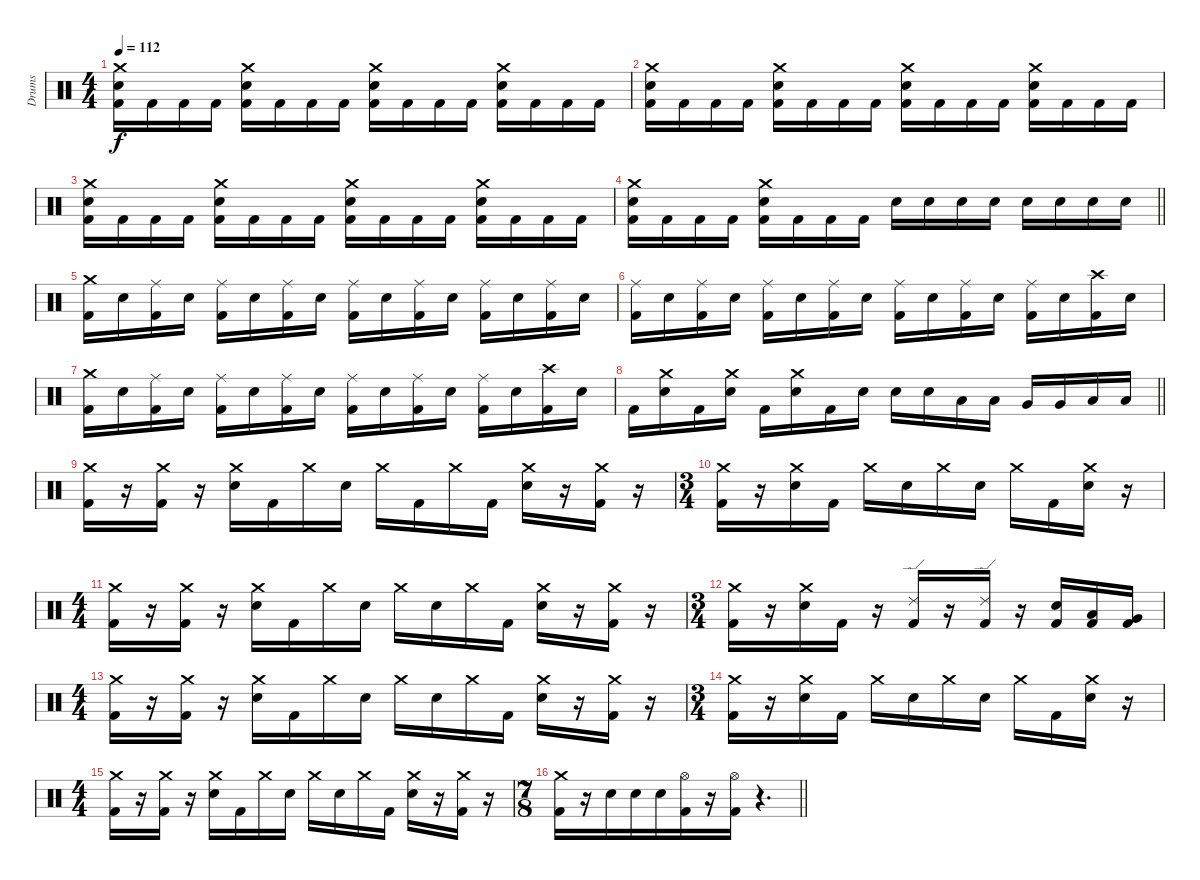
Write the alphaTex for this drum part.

\track ("Drums" "Drums") {instrument percussion}
\staff {score}
\articulation defaults
\ts (4 4)
\section ("" "")
\tempo 112
\clef neutral
\ks c
("Crash medium (hit)" "Electric Snare (hit)" "Kick (hit) 2").16{dy f} "Kick (hit) 2".16 "Kick (hit) 2".16 "Kick (hit) 2".16 ("Crash medium (hit)" "Electric Snare (hit)" "Kick (hit) 2").16 "Kick (hit) 2".16 "Kick (hit) 2".16 "Kick (hit) 2".16 ("Crash medium (hit)" "Electric Snare (hit)" "Kick (hit) 2").16 "Kick (hit) 2".16 "Kick (hit) 2".16 "Kick (hit) 2".16 ("Crash medium (hit)" "Electric Snare (hit)" "Kick (hit) 2").16 "Kick (hit) 2".16 "Kick (hit) 2".16 "Kick (hit) 2".16 |
("Crash medium (hit)" "Electric Snare (hit)" "Kick (hit) 2").16 "Kick (hit) 2".16 "Kick (hit) 2".16 "Kick (hit) 2".16 ("Crash medium (hit)" "Electric Snare (hit)" "Kick (hit) 2").16 "Kick (hit) 2".16 "Kick (hit) 2".16 "Kick (hit) 2".16 ("Crash medium (hit)" "Electric Snare (hit)" "Kick (hit) 2").16 "Kick (hit) 2".16 "Kick (hit) 2".16 "Kick (hit) 2".16 ("Crash medium (hit)" "Electric Snare (hit)" "Kick (hit) 2").16 "Kick (hit) 2".16 "Kick (hit) 2".16 "Kick (hit) 2".16 |
("Crash medium (hit)" "Electric Snare (hit)" "Kick (hit) 2").16 "Kick (hit) 2".16 "Kick (hit) 2".16 "Kick (hit) 2".16 ("Crash medium (hit)" "Electric Snare (hit)" "Kick (hit) 2").16 "Kick (hit) 2".16 "Kick (hit) 2".16 "Kick (hit) 2".16 ("Crash medium (hit)" "Electric Snare (hit)" "Kick (hit) 2").16 "Kick (hit) 2".16 "Kick (hit) 2".16 "Kick (hit) 2".16 ("Crash medium (hit)" "Electric Snare (hit)" "Kick (hit) 2").16 "Kick (hit) 2".16 "Kick (hit) 2".16 "Kick (hit) 2".16 |
\barLineRight lightlight
("Crash medium (hit)" "Electric Snare (hit)" "Kick (hit) 2").16 "Kick (hit) 2".16 "Kick (hit) 2".16 "Kick (hit) 2".16 ("Crash medium (hit)" "Electric Snare (hit)" "Kick (hit) 2").16 "Kick (hit) 2".16 "Kick (hit) 2".16 "Kick (hit) 2".16 "Electric Snare (hit)".16 "Electric Snare (hit)".16 "Electric Snare (hit)".16 "Electric Snare (hit)".16 "Electric Snare (hit)".16 "Electric Snare (hit)".16 "Electric Snare (hit)".16 "Electric Snare (hit)".16 |
\section ("" "")
("Crash medium (hit)" "Kick (hit) 2").16 "Electric Snare (hit)".16 ("Ride (middle)" "Kick (hit) 2").16 "Electric Snare (hit)".16 ("Ride (middle)" "Kick (hit) 2").16 "Electric Snare (hit)".16 ("Ride (middle)" "Kick (hit) 2").16 "Electric Snare (hit)".16 ("Ride (middle)" "Kick (hit) 2").16 "Electric Snare (hit)".16 ("Ride (middle)" "Kick (hit) 2").16 "Electric Snare (hit)".16 ("Ride (middle)" "Kick (hit) 2").16 "Electric Snare (hit)".16 ("Ride (middle)" "Kick (hit) 2").16 "Electric Snare (hit)".16 |
("Ride (middle)" "Kick (hit) 2").16 "Electric Snare (hit)".16 ("Ride (middle)" "Kick (hit) 2").16 "Electric Snare (hit)".16 ("Ride (middle)" "Kick (hit) 2").16 "Electric Snare (hit)".16 ("Ride (middle)" "Kick (hit) 2").16 "Electric Snare (hit)".16 ("Ride (middle)" "Kick (hit) 2").16 "Electric Snare (hit)".16 ("Ride (middle)" "Kick (hit) 2").16 "Electric Snare (hit)".16 ("Ride (middle)" "Kick (hit) 2").16 "Electric Snare (hit)".16 ("Crash high (hit)" "Kick (hit) 2").16 "Electric Snare (hit)".16 |
("Crash medium (hit)" "Kick (hit) 2").16 "Electric Snare (hit)".16 ("Ride (middle)" "Kick (hit) 2").16 "Electric Snare (hit)".16 ("Ride (middle)" "Kick (hit) 2").16 "Electric Snare (hit)".16 ("Ride (middle)" "Kick (hit) 2").16 "Electric Snare (hit)".16 ("Ride (middle)" "Kick (hit) 2").16 "Electric Snare (hit)".16 ("Ride (middle)" "Kick (hit) 2").16 "Electric Snare (hit)".16 ("Ride (middle)" "Kick (hit) 2").16 "Electric Snare (hit)".16 ("Crash high (hit)" "Kick (hit) 2").16 "Electric Snare (hit)".16 |
\barLineRight lightlight "Kick (hit) 2".16
("Crash medium (hit)" "Electric Snare (hit)").16 "Kick (hit) 2".16 ("Crash medium (hit)" "Electric Snare (hit)").16 "Kick (hit) 2".16 ("Crash medium (hit)" "Electric Snare (hit)").16 "Kick (hit) 2".16 "Electric Snare (hit)".16 "Electric Snare (hit)".16 "Electric Snare (hit)".16 "Low Tom (hit)".16 "Low Tom (hit)".16 "Very Low Tom (hit)".16 "Very Low Tom (hit)".16 "Low Floor Tom (hit)".16 "Low Floor Tom (hit)".16 |
\section ("" "")
("Crash medium (hit)" "Kick (hit) 2").16 r.16 ("Crash medium (hit)" "Kick (hit) 2").16 r.16 ("Crash medium (hit)" "Electric Snare (hit)").16 "Kick (hit) 2".16 "Crash medium (hit)".16 "Electric Snare (hit)".16 "Crash medium (hit)".16 "Kick (hit) 2".16 "Crash medium (hit)".16 "Kick (hit) 2".16 ("Crash medium (hit)" "Electric Snare (hit)").16 r.16 ("Crash medium (hit)" "Kick (hit) 2").16 r.16 |
\ts (3 4)
("Crash medium (hit)" "Kick (hit) 2").16 r.16 ("Crash medium (hit)" "Electric Snare (hit)").16 "Kick (hit) 2".16 "Crash medium (hit)".16 "Electric Snare (hit)".16 "Crash medium (hit)".16 "Electric Snare (hit)".16 "Crash medium (hit)".16 "Kick (hit) 2".16 ("Crash medium (hit)" "Electric Snare (hit)").16 r.16 |
\ts (4 4)
("Crash medium (hit)" "Kick (hit) 2").16 r.16 ("Crash medium (hit)" "Kick (hit) 2").16 r.16 ("Crash medium (hit)" "Electric Snare (hit)").16 "Kick (hit) 2".16 "Crash medium (hit)".16 "Electric Snare (hit)".16 "Crash medium (hit)".16 "Electric Snare (hit)".16 "Crash medium (hit)".16 "Kick (hit) 2".16 ("Crash medium (hit)" "Electric Snare (hit)").16 r.16 ("Crash medium (hit)" "Kick (hit) 2").16 r.16 |
\ts (3 4)
("Crash medium (hit)" "Kick (hit) 2").16 r.16 ("Crash medium (hit)" "Electric Snare (hit)").16 "Kick (hit) 2".16 r.16 ("Ride (edge) 2" "Kick (hit) 2").16 r.16 ("Ride (edge) 2" "Kick (hit) 2").16 r.16 ("Electric Snare (hit)" "Kick (hit) 2").16 ("Low Tom (hit)" "Kick (hit) 2").16 ("Very Low Tom (hit)" "Kick (hit) 2").16 |
\ts (4 4)
("Crash medium (hit)" "Kick (hit) 2").16 r.16 ("Crash medium (hit)" "Kick (hit) 2").16 r.16 ("Crash medium (hit)" "Electric Snare (hit)").16 "Kick (hit) 2".16 "Crash medium (hit)".16 "Electric Snare (hit)".16 "Crash medium (hit)".16 "Electric Snare (hit)".16 "Crash medium (hit)".16 "Kick (hit) 2".16 ("Crash medium (hit)" "Electric Snare (hit)").16 r.16 ("Crash medium (hit)" "Kick (hit) 2").16 r.16 |
\ts (3 4)
("Crash medium (hit)" "Kick (hit) 2").16 r.16 ("Crash medium (hit)" "Electric Snare (hit)").16 "Kick (hit) 2".16 "Crash medium (hit)".16 "Electric Snare (hit)".16 "Crash medium (hit)".16 "Electric Snare (hit)".16 "Crash medium (hit)".16 "Kick (hit) 2".16 ("Crash medium (hit)" "Electric Snare (hit)").16 r.16 |
\ts (4 4)
("Crash medium (hit)" "Kick (hit) 2").16 r.16 ("Crash medium (hit)" "Kick (hit) 2").16 r.16 ("Crash medium (hit)" "Electric Snare (hit)").16 "Kick (hit) 2".16 "Crash medium (hit)".16 "Electric Snare (hit)".16 "Crash medium (hit)".16 "Electric Snare (hit)".16 "Crash medium (hit)".16 "Kick (hit) 2".16 ("Crash medium (hit)" "Electric Snare (hit)").16 r.16 ("Crash medium (hit)" "Kick (hit) 2").16 r.16 |
\ts (7 8)
\barLineRight lightlight
("Crash medium (hit)" "Kick (hit) 2").16 r.16 "Electric Snare (hit)".16 "Electric Snare (hit)".16 "Electric Snare (hit)".16 ("Hi-Hat (open)" "Kick (hit) 2").16 r.16 ("Hi-Hat (open)" "Kick (hit) 2").16 r.4{d}
